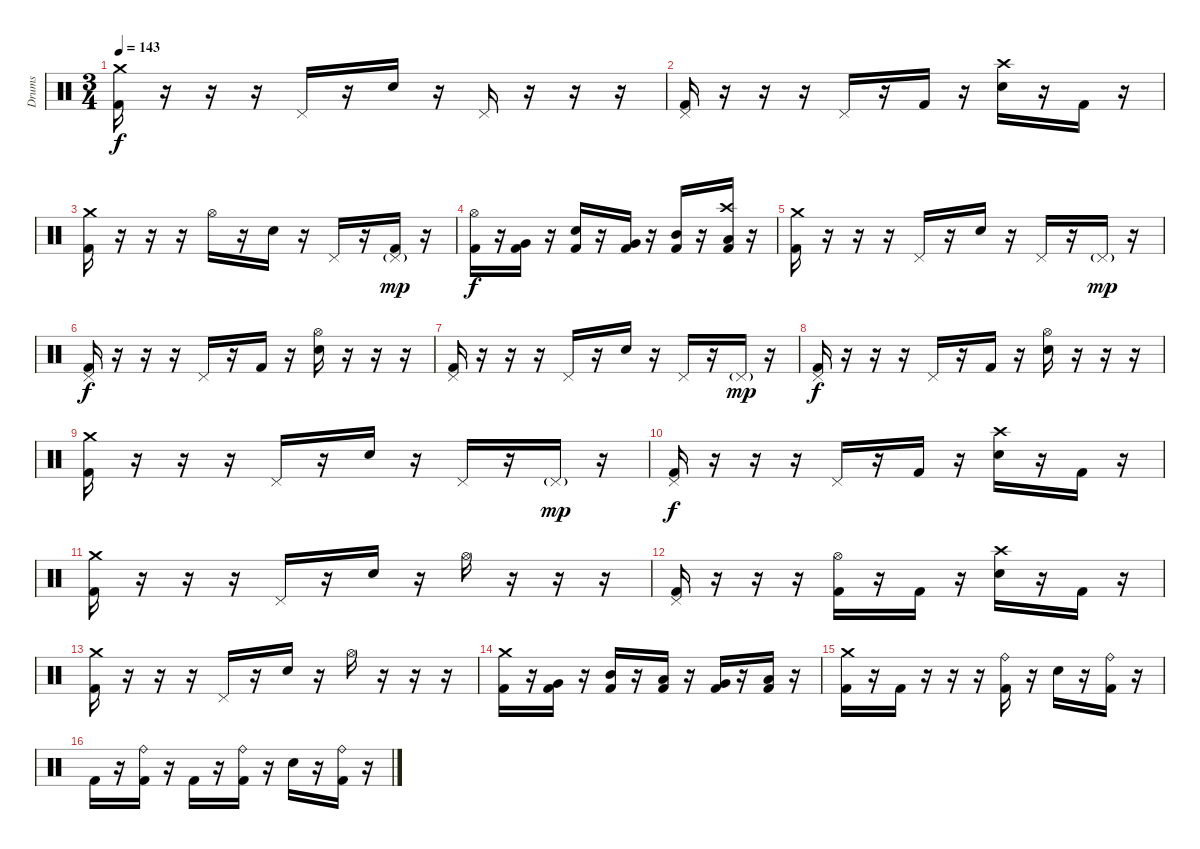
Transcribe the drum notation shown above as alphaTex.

\track ("Drums" "Drums") {instrument percussion}
\staff {score}
\articulation defaults
\ts (3 4)
\tempo 143
\clef neutral
\ks c
("Crash medium (hit)" "Kick (hit) 2").16{dy f} r.16 r.16 r.16 "Pedal Hi-Hat (hit)".16 r.16 "Electric Snare (hit)".16 r.16 "Pedal Hi-Hat (hit)".16 r.16 r.16 r.16 |
("Pedal Hi-Hat (hit)" "Kick (hit) 2").16 r.16 r.16 r.16 "Pedal Hi-Hat (hit)".16 r.16 "Kick (hit) 2".16 r.16 ("Crash high (hit)" "Electric Snare (hit)").16 r.16 "Kick (hit) 2".16 r.16 |
("Crash medium (hit)" "Kick (hit) 2").16 r.16 r.16 r.16 "Hi-Hat (open)".16 r.16 "Electric Snare (hit)".16 r.16 "Pedal Hi-Hat (hit)".16 r.16 ("Pedal Hi-Hat (hit)"{g} "Kick (hit) 2").16{dy mp} r.16 |
("Hi-Hat (open)" "Kick (hit) 2").16{dy f} r.16 ("Very Low Tom (hit)" "Kick (hit) 2").16 r.16 ("Electric Snare (hit)" "Kick (hit) 2").16 r.16 ("Very Low Tom (hit)" "Kick (hit) 2").16 r.16 ("Mid Tom (hit)" "Kick (hit) 2").16 r.16 ("Crash high (hit)" "Low Tom (hit)" "Kick (hit) 2").16 r.16 |
("Crash medium (hit)" "Kick (hit) 2").16 r.16 r.16 r.16 "Pedal Hi-Hat (hit)".16 r.16 "Electric Snare (hit)".16 r.16 "Pedal Hi-Hat (hit)".16 r.16 "Pedal Hi-Hat (hit)"{g}.16{dy mp} r.16 |
("Pedal Hi-Hat (hit)" "Kick (hit) 2").16{dy f} r.16 r.16 r.16 "Pedal Hi-Hat (hit)".16 r.16 "Kick (hit) 2".16 r.16 ("Hi-Hat (open)" "Electric Snare (hit)").16 r.16 r.16 r.16 |
("Pedal Hi-Hat (hit)" "Kick (hit) 2").16 r.16 r.16 r.16 "Pedal Hi-Hat (hit)".16 r.16 "Electric Snare (hit)".16 r.16 "Pedal Hi-Hat (hit)".16 r.16 "Pedal Hi-Hat (hit)"{g}.16{dy mp} r.16 |
("Pedal Hi-Hat (hit)" "Kick (hit) 2").16{dy f} r.16 r.16 r.16 "Pedal Hi-Hat (hit)".16 r.16 "Kick (hit) 2".16 r.16 ("Hi-Hat (open)" "Electric Snare (hit)").16 r.16 r.16 r.16 |
("Crash medium (hit)" "Kick (hit) 2").16 r.16 r.16 r.16 "Pedal Hi-Hat (hit)".16 r.16 "Electric Snare (hit)".16 r.16 "Pedal Hi-Hat (hit)".16 r.16 "Pedal Hi-Hat (hit)"{g}.16{dy mp} r.16 |
("Pedal Hi-Hat (hit)" "Kick (hit) 2").16{dy f} r.16 r.16 r.16 "Pedal Hi-Hat (hit)".16 r.16 "Kick (hit) 2".16 r.16 ("Crash high (hit)" "Electric Snare (hit)").16 r.16 "Kick (hit) 2".16 r.16 |
("Crash medium (hit)" "Kick (hit) 2").16 r.16 r.16 r.16 "Pedal Hi-Hat (hit)".16 r.16 "Electric Snare (hit)".16 r.16 "Hi-Hat (open)".16 r.16 r.16 r.16 |
("Pedal Hi-Hat (hit)" "Kick (hit) 2").16 r.16 r.16 r.16 ("Hi-Hat (open)" "Kick (hit) 2").16 r.16 "Kick (hit) 2".16 r.16 ("Crash high (hit)" "Electric Snare (hit)").16 r.16 "Kick (hit) 2".16 r.16 |
("Crash medium (hit)" "Kick (hit) 2").16 r.16 r.16 r.16 "Pedal Hi-Hat (hit)".16 r.16 "Electric Snare (hit)".16 r.16 "Hi-Hat (open)".16 r.16 r.16 r.16 |
("Crash medium (hit)" "Kick (hit) 2").16 r.16 ("Very Low Tom (hit)" "Kick (hit) 2").16 r.16 ("Mid Tom (hit)" "Kick (hit) 2").16 r.16 ("Low Tom (hit)" "Kick (hit) 2").16 r.16 ("Very Low Tom (hit)" "Kick (hit) 2").16 r.16 ("Low Floor Tom (hit)" "Kick (hit) 2").16 r.16 |
\section ("" "")
("Crash medium (hit)" "Kick (hit) 2").16 r.16 "Kick (hit) 2".16 r.16 r.16 r.16 ("Ride (bell)" "Kick (hit) 2").16 r.16 "Electric Snare (hit)".16 r.16 ("Ride (bell)" "Kick (hit) 2").16 r.16 |
"Kick (hit) 2".16 r.16 ("Ride (bell)" "Kick (hit) 2").16 r.16 "Kick (hit) 2".16 r.16 ("Ride (bell)" "Kick (hit) 2").16 r.16 "Electric Snare (hit)".16 r.16 ("Ride (bell)" "Kick (hit) 2").16 r.16
